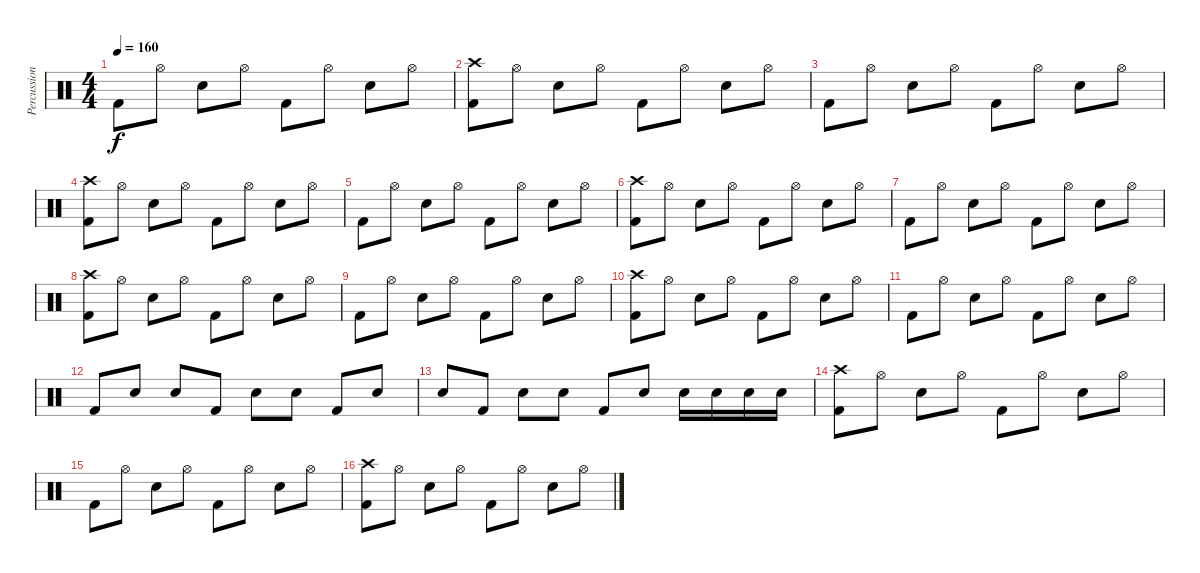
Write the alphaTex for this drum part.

\track ("Percussion" "Percussion") {instrument percussion}
\staff {score}
\articulation defaults
\ts (4 4)
\tempo 160
\clef neutral
\ks c "Kick (hit) 2".8{dy f} "Hi-Hat (open)".8 "Electric Snare (hit)".8 "Hi-Hat (open)".8 "Kick (hit) 2".8 "Hi-Hat (open)".8 "Electric Snare (hit)".8 "Hi-Hat (open)".8
|
("Kick (hit) 2" "Crash high (hit)").8 "Hi-Hat (open)".8 "Electric Snare (hit)".8 "Hi-Hat (open)".8 "Kick (hit) 2".8 "Hi-Hat (open)".8 "Electric Snare (hit)".8 "Hi-Hat (open)".8 |
"Kick (hit) 2".8 "Hi-Hat (open)".8 "Electric Snare (hit)".8 "Hi-Hat (open)".8 "Kick (hit) 2".8 "Hi-Hat (open)".8 "Electric Snare (hit)".8 "Hi-Hat (open)".8 |
("Kick (hit) 2" "Crash high (hit)").8 "Hi-Hat (open)".8 "Electric Snare (hit)".8 "Hi-Hat (open)".8 "Kick (hit) 2".8 "Hi-Hat (open)".8 "Electric Snare (hit)".8 "Hi-Hat (open)".8 |
"Kick (hit) 2".8 "Hi-Hat (open)".8 "Electric Snare (hit)".8 "Hi-Hat (open)".8 "Kick (hit) 2".8 "Hi-Hat (open)".8 "Electric Snare (hit)".8 "Hi-Hat (open)".8 |
("Kick (hit) 2" "Crash high (hit)").8 "Hi-Hat (open)".8 "Electric Snare (hit)".8 "Hi-Hat (open)".8 "Kick (hit) 2".8 "Hi-Hat (open)".8 "Electric Snare (hit)".8 "Hi-Hat (open)".8 |
"Kick (hit) 2".8 "Hi-Hat (open)".8 "Electric Snare (hit)".8 "Hi-Hat (open)".8 "Kick (hit) 2".8 "Hi-Hat (open)".8 "Electric Snare (hit)".8 "Hi-Hat (open)".8 |
("Kick (hit) 2" "Crash high (hit)").8 "Hi-Hat (open)".8 "Electric Snare (hit)".8 "Hi-Hat (open)".8 "Kick (hit) 2".8 "Hi-Hat (open)".8 "Electric Snare (hit)".8 "Hi-Hat (open)".8 |
"Kick (hit) 2".8 "Hi-Hat (open)".8 "Electric Snare (hit)".8 "Hi-Hat (open)".8 "Kick (hit) 2".8 "Hi-Hat (open)".8 "Electric Snare (hit)".8 "Hi-Hat (open)".8 |
("Kick (hit) 2" "Crash high (hit)").8 "Hi-Hat (open)".8 "Electric Snare (hit)".8 "Hi-Hat (open)".8 "Kick (hit) 2".8 "Hi-Hat (open)".8 "Electric Snare (hit)".8 "Hi-Hat (open)".8 |
"Kick (hit) 2".8 "Hi-Hat (open)".8 "Electric Snare (hit)".8 "Hi-Hat (open)".8 "Kick (hit) 2".8 "Hi-Hat (open)".8 "Electric Snare (hit)".8 "Hi-Hat (open)".8 |
"Kick (hit) 2".8 "Electric Snare (hit)".8 "Electric Snare (hit)".8 "Kick (hit) 2".8 "Electric Snare (hit)".8 "Electric Snare (hit)".8 "Kick (hit) 2".8 "Electric Snare (hit)".8 |
"Electric Snare (hit)".8 "Kick (hit) 2".8 "Electric Snare (hit)".8 "Electric Snare (hit)".8 "Kick (hit) 2".8 "Electric Snare (hit)".8 "Electric Snare (hit)".16 "Electric Snare (hit)".16 "Electric Snare (hit)".16 "Electric Snare (hit)".16 |
("Kick (hit) 2" "Crash high (hit)").8 "Hi-Hat (open)".8 "Electric Snare (hit)".8 "Hi-Hat (open)".8 "Kick (hit) 2".8 "Hi-Hat (open)".8 "Electric Snare (hit)".8 "Hi-Hat (open)".8 |
"Kick (hit) 2".8 "Hi-Hat (open)".8 "Electric Snare (hit)".8 "Hi-Hat (open)".8 "Kick (hit) 2".8 "Hi-Hat (open)".8 "Electric Snare (hit)".8 "Hi-Hat (open)".8 |
("Kick (hit) 2" "Crash high (hit)").8 "Hi-Hat (open)".8 "Electric Snare (hit)".8 "Hi-Hat (open)".8 "Kick (hit) 2".8 "Hi-Hat (open)".8 "Electric Snare (hit)".8 "Hi-Hat (open)".8
